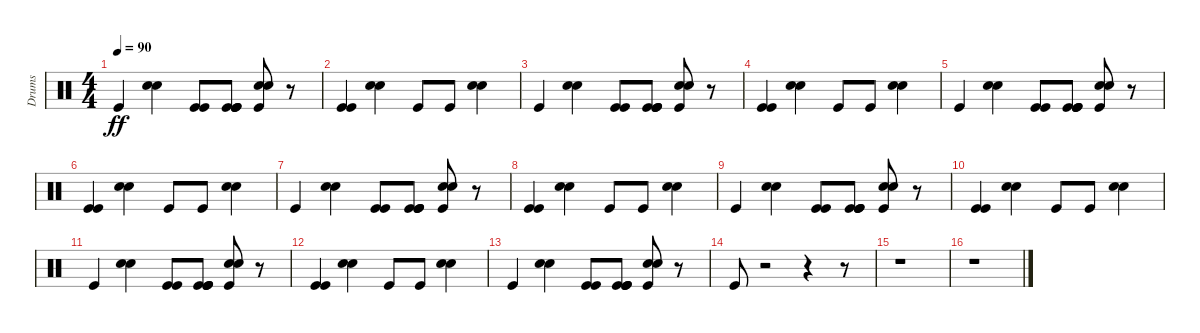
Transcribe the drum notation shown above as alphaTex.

\track ("Drums" "Drums") {instrument percussion}
\staff {score}
\articulation defaults
\ts (4 4)
\tempo 90
\clef neutral
\ks c "Kick (hit)".4{dy ff}
("Snare (hit) 2" "Hand Clap (hit)").4 ("Kick (hit)" "Kick (hit)").8 ("Kick (hit)" "Kick (hit)" "Kick (hit)" "Kick (hit)").8 ("Snare (hit) 2" "Hand Clap (hit)" "Kick (hit)").8 r.8 |
("Kick (hit)" "Kick (hit)").4 ("Snare (hit) 2" "Hand Clap (hit)").4 "Kick (hit)".8 "Kick (hit)".8 ("Snare (hit) 2" "Hand Clap (hit)").4 |
"Kick (hit)".4 ("Snare (hit) 2" "Hand Clap (hit)").4 ("Kick (hit)" "Kick (hit)").8 ("Kick (hit)" "Kick (hit)" "Kick (hit)" "Kick (hit)").8 ("Snare (hit) 2" "Hand Clap (hit)" "Kick (hit)").8 r.8 |
("Kick (hit)" "Kick (hit)").4 ("Snare (hit) 2" "Hand Clap (hit)").4 "Kick (hit)".8 "Kick (hit)".8 ("Snare (hit) 2" "Hand Clap (hit)").4 |
"Kick (hit)".4 ("Snare (hit) 2" "Hand Clap (hit)").4 ("Kick (hit)" "Kick (hit)").8 ("Kick (hit)" "Kick (hit)" "Kick (hit)" "Kick (hit)").8 ("Snare (hit) 2" "Hand Clap (hit)" "Kick (hit)").8 r.8 |
("Kick (hit)" "Kick (hit)").4 ("Snare (hit) 2" "Hand Clap (hit)").4 "Kick (hit)".8 "Kick (hit)".8 ("Snare (hit) 2" "Hand Clap (hit)").4 |
"Kick (hit)".4 ("Snare (hit) 2" "Hand Clap (hit)").4 ("Kick (hit)" "Kick (hit)").8 ("Kick (hit)" "Kick (hit)" "Kick (hit)" "Kick (hit)").8 ("Snare (hit) 2" "Hand Clap (hit)" "Kick (hit)").8 r.8 |
("Kick (hit)" "Kick (hit)").4 ("Snare (hit) 2" "Hand Clap (hit)").4 "Kick (hit)".8 "Kick (hit)".8 ("Snare (hit) 2" "Hand Clap (hit)").4 |
"Kick (hit)".4 ("Snare (hit) 2" "Hand Clap (hit)").4 ("Kick (hit)" "Kick (hit)").8 ("Kick (hit)" "Kick (hit)" "Kick (hit)" "Kick (hit)").8 ("Snare (hit) 2" "Hand Clap (hit)" "Kick (hit)").8 r.8 |
("Kick (hit)" "Kick (hit)").4 ("Snare (hit) 2" "Hand Clap (hit)").4 "Kick (hit)".8 "Kick (hit)".8 ("Snare (hit) 2" "Hand Clap (hit)").4 |
"Kick (hit)".4 ("Snare (hit) 2" "Hand Clap (hit)").4 ("Kick (hit)" "Kick (hit)").8 ("Kick (hit)" "Kick (hit)" "Kick (hit)" "Kick (hit)").8 ("Snare (hit) 2" "Hand Clap (hit)" "Kick (hit)").8 r.8 |
("Kick (hit)" "Kick (hit)").4 ("Snare (hit) 2" "Hand Clap (hit)").4 "Kick (hit)".8 "Kick (hit)".8 ("Snare (hit) 2" "Hand Clap (hit)").4 |
"Kick (hit)".4 ("Snare (hit) 2" "Hand Clap (hit)").4 ("Kick (hit)" "Kick (hit)").8 ("Kick (hit)" "Kick (hit)" "Kick (hit)" "Kick (hit)").8 ("Snare (hit) 2" "Hand Clap (hit)" "Kick (hit)").8 r.8 |
"Kick (hit)".8 r.2 r.4 r.8 |
r.1 |
r.1
